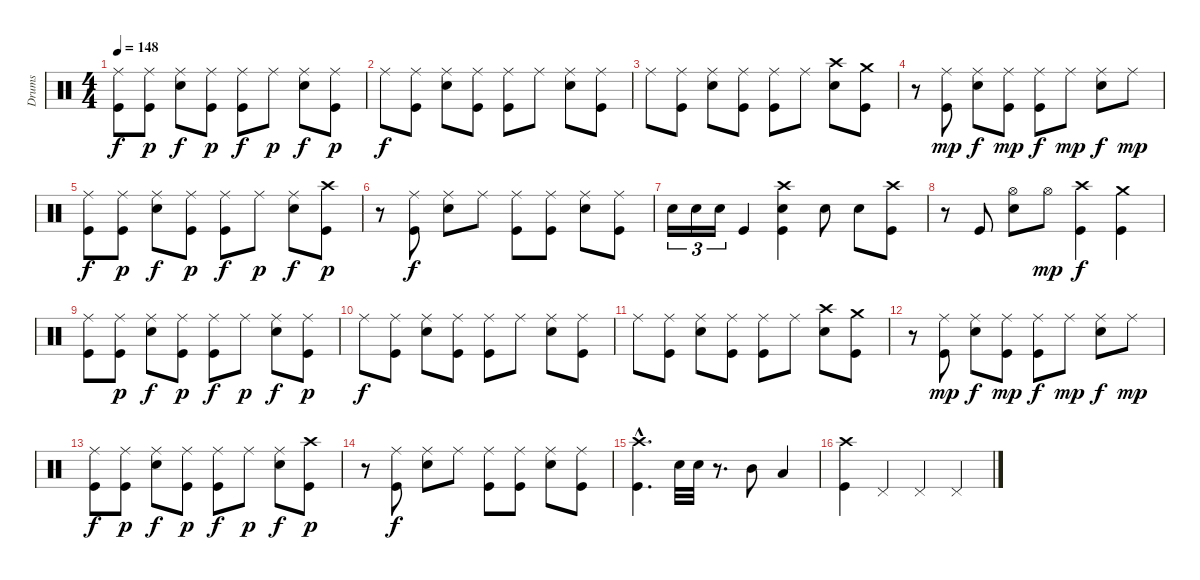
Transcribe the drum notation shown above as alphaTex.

\track ("Drums" "Drums") {instrument percussion}
\staff {score}
\articulation defaults
\ts (4 4)
\tempo 148
\clef neutral
\ks c
("Ride (middle)" "Kick (hit)").8{dy f} ("Ride (middle)" "Kick (hit)").8{dy p} ("Ride (middle)" "Snare (hit) 2").8{dy f} ("Ride (middle)" "Kick (hit)").8{dy p} ("Ride (middle)" "Kick (hit)").8{dy f} "Ride (middle)".8{dy p} ("Ride (middle)" "Snare (hit) 2").8{dy f} ("Ride (middle)" "Kick (hit)").8{dy p} |
"Ride (middle)".8{dy f} ("Ride (middle)" "Kick (hit)").8 ("Ride (middle)" "Snare (hit) 2").8 ("Ride (middle)" "Kick (hit)").8 ("Ride (middle)" "Kick (hit)").8 "Ride (middle)".8 ("Ride (middle)" "Snare (hit) 2").8 ("Ride (middle)" "Kick (hit)").8 |
"Ride (middle)".8 ("Ride (middle)" "Kick (hit)").8 ("Ride (middle)" "Snare (hit) 2").8 ("Ride (middle)" "Kick (hit)").8 ("Ride (middle)" "Kick (hit)").8 "Ride (middle)".8 ("Crash high (hit)" "Snare (hit) 2").8 ("Crash medium (hit)" "Kick (hit)").8 |
r.8 ("Ride (middle)" "Kick (hit)").8{dy mp} ("Ride (middle)" "Snare (hit) 2").8{dy f} ("Ride (middle)" "Kick (hit)").8{dy mp} ("Ride (middle)" "Kick (hit)").8{dy f} "Ride (middle)".8{dy mp} ("Ride (middle)" "Snare (hit) 2").8{dy f} "Ride (middle)".8{dy mp} |
("Ride (middle)" "Kick (hit)").8{dy f} ("Ride (middle)" "Kick (hit)").8{dy p} ("Ride (middle)" "Snare (hit) 2").8{dy f} ("Ride (middle)" "Kick (hit)").8{dy p} ("Ride (middle)" "Kick (hit)").8{dy f} "Ride (middle)".8{dy p} ("Ride (middle)" "Snare (hit) 2").8{dy f} ("Crash high (hit)" "Kick (hit)").8{dy p} |
r.8 ("Ride (middle)" "Kick (hit)").8{dy f} ("Ride (middle)" "Snare (hit) 2").8 "Ride (middle)".8 ("Ride (middle)" "Kick (hit)").8 ("Ride (middle)" "Kick (hit)").8 ("Ride (middle)" "Snare (hit) 2").8 ("Ride (middle)" "Kick (hit)").8 |
"Snare (hit) 2".16{tu (3 2)} "Snare (hit) 2".16{tu (3 2)} "Snare (hit) 2".16{tu (3 2)} "Kick (hit)".4 ("Crash high (hit)" "Snare (hit) 2" "Kick (hit)").4 "Snare (hit) 2".8 "Snare (hit) 2".8 ("Crash high (hit)" "Kick (hit)").8 |
r.8 "Kick (hit)".8 ("Hi-Hat (open)" "Snare (hit) 2").8 "Hi-Hat (open)".8{dy mp} ("Crash high (hit)" "Kick (hit)").4{dy f} ("Crash medium (hit)" "Kick (hit)").4 |
("Ride (middle)" "Kick (hit)").8 ("Ride (middle)" "Kick (hit)").8{dy p} ("Ride (middle)" "Snare (hit) 2").8{dy f} ("Ride (middle)" "Kick (hit)").8{dy p} ("Ride (middle)" "Kick (hit)").8{dy f} "Ride (middle)".8{dy p} ("Ride (middle)" "Snare (hit) 2").8{dy f} ("Ride (middle)" "Kick (hit)").8{dy p} |
"Ride (middle)".8{dy f} ("Ride (middle)" "Kick (hit)").8 ("Ride (middle)" "Snare (hit) 2").8 ("Ride (middle)" "Kick (hit)").8 ("Ride (middle)" "Kick (hit)").8 "Ride (middle)".8 ("Ride (middle)" "Snare (hit) 2").8 ("Ride (middle)" "Kick (hit)").8 |
"Ride (middle)".8 ("Ride (middle)" "Kick (hit)").8 ("Ride (middle)" "Snare (hit) 2").8 ("Ride (middle)" "Kick (hit)").8 ("Ride (middle)" "Kick (hit)").8 "Ride (middle)".8 ("Crash high (hit)" "Snare (hit) 2").8 ("Crash medium (hit)" "Kick (hit)").8 |
r.8 ("Ride (middle)" "Kick (hit)").8{dy mp} ("Ride (middle)" "Snare (hit) 2").8{dy f} ("Ride (middle)" "Kick (hit)").8{dy mp} ("Ride (middle)" "Kick (hit)").8{dy f} "Ride (middle)".8{dy mp} ("Ride (middle)" "Snare (hit) 2").8{dy f} "Ride (middle)".8{dy mp} |
("Ride (middle)" "Kick (hit)").8{dy f} ("Ride (middle)" "Kick (hit)").8{dy p} ("Ride (middle)" "Snare (hit) 2").8{dy f} ("Ride (middle)" "Kick (hit)").8{dy p} ("Ride (middle)" "Kick (hit)").8{dy f} "Ride (middle)".8{dy p} ("Ride (middle)" "Snare (hit) 2").8{dy f} ("Crash high (hit)" "Kick (hit)").8{dy p} |
r.8 ("Ride (middle)" "Kick (hit)").8{dy f} ("Ride (middle)" "Snare (hit) 2").8 "Ride (middle)".8 ("Ride (middle)" "Kick (hit)").8 ("Ride (middle)" "Kick (hit)").8 ("Ride (middle)" "Snare (hit) 2").8 ("Ride (middle)" "Kick (hit)").8 |
("Crash high (hit)"{hac} "Kick (hit)"{hac}).4{d} "Snare (hit) 2".32 "Snare (hit) 2".32 r.8{d} "Mid Tom (hit)".8 "Low Tom (hit)".4 |
("Crash high (hit)" "Kick (hit)").4 "Pedal Hi-Hat (hit)".4 "Pedal Hi-Hat (hit)".4 "Pedal Hi-Hat (hit)".4
